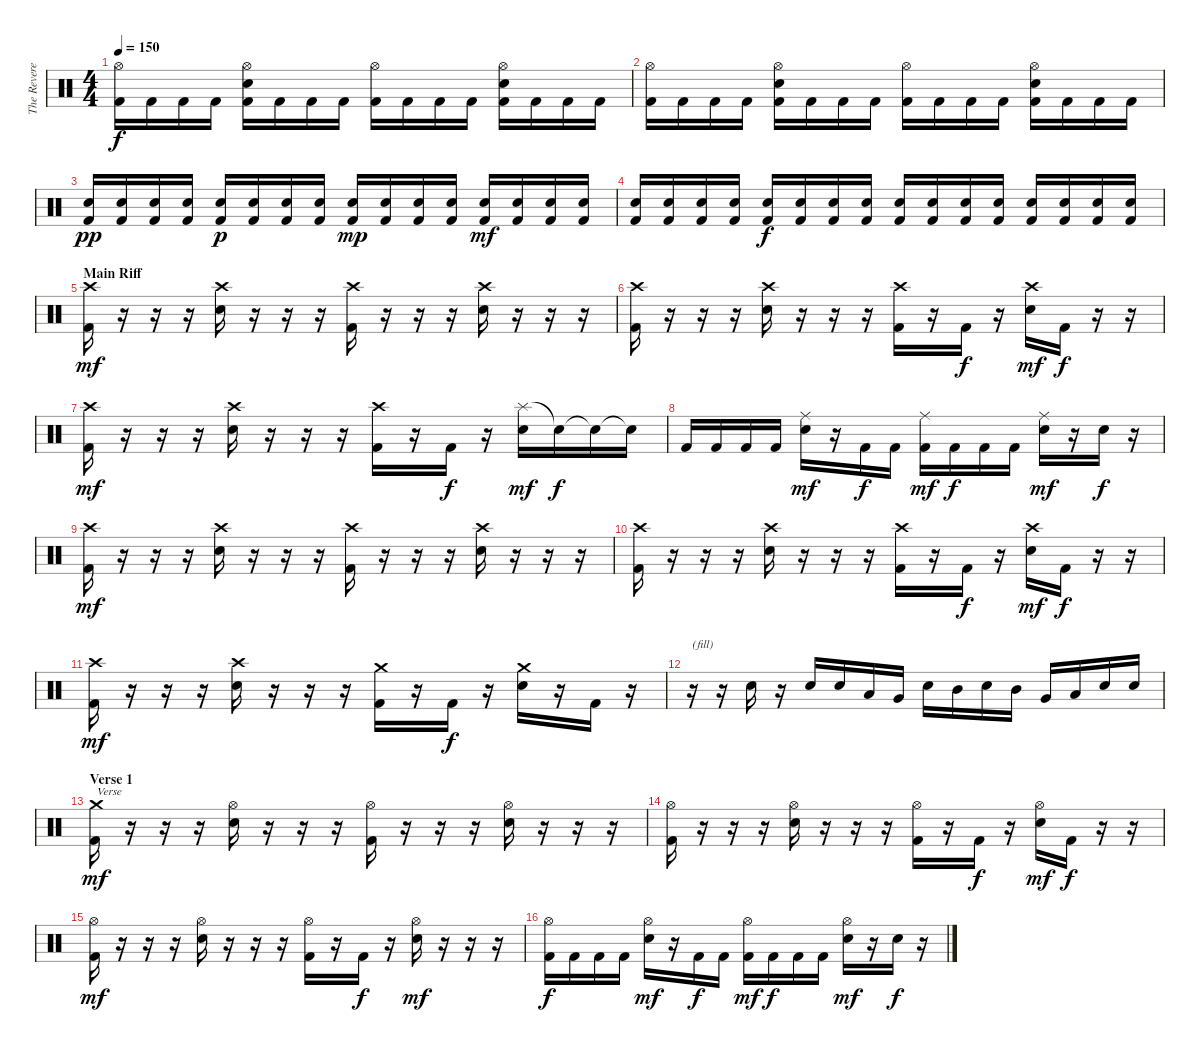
\track ("The Reverend" "The Revere") {instrument percussion}
\staff {score}
\articulation defaults
\ts (4 4)
\tempo 150
\clef neutral
\ks c
("Hi-Hat (open)" "Kick (hit) 2").16{dy f} "Kick (hit) 2".16 "Kick (hit) 2".16 "Kick (hit) 2".16 ("Hi-Hat (open)" "Electric Snare (hit)" "Kick (hit) 2").16 "Kick (hit) 2".16 "Kick (hit) 2".16 "Kick (hit) 2".16 ("Hi-Hat (open)" "Kick (hit) 2").16 "Kick (hit) 2".16 "Kick (hit) 2".16 "Kick (hit) 2".16 ("Hi-Hat (open)" "Electric Snare (hit)" "Kick (hit) 2").16 "Kick (hit) 2".16 "Kick (hit) 2".16 "Kick (hit) 2".16 |
("Hi-Hat (open)" "Kick (hit) 2").16 "Kick (hit) 2".16 "Kick (hit) 2".16 "Kick (hit) 2".16 ("Hi-Hat (open)" "Electric Snare (hit)" "Kick (hit) 2").16 "Kick (hit) 2".16 "Kick (hit) 2".16 "Kick (hit) 2".16 ("Hi-Hat (open)" "Kick (hit) 2").16 "Kick (hit) 2".16 "Kick (hit) 2".16 "Kick (hit) 2".16 ("Hi-Hat (open)" "Electric Snare (hit)" "Kick (hit) 2").16 "Kick (hit) 2".16 "Kick (hit) 2".16 "Kick (hit) 2".16 |
("Electric Snare (hit)" "Kick (hit) 2").16{dy pp} ("Electric Snare (hit)" "Kick (hit) 2").16 ("Electric Snare (hit)" "Kick (hit) 2").16 ("Electric Snare (hit)" "Kick (hit) 2").16 ("Electric Snare (hit)" "Kick (hit) 2").16{dy p} ("Electric Snare (hit)" "Kick (hit) 2").16 ("Electric Snare (hit)" "Kick (hit) 2").16 ("Electric Snare (hit)" "Kick (hit) 2").16 ("Electric Snare (hit)" "Kick (hit) 2").16{dy mp} ("Electric Snare (hit)" "Kick (hit) 2").16 ("Electric Snare (hit)" "Kick (hit) 2").16 ("Electric Snare (hit)" "Kick (hit) 2").16 ("Electric Snare (hit)" "Kick (hit) 2").16{dy mf} ("Electric Snare (hit)" "Kick (hit) 2").16 ("Electric Snare (hit)" "Kick (hit) 2").16 ("Electric Snare (hit)" "Kick (hit) 2").16 |
("Electric Snare (hit)" "Kick (hit) 2").16 ("Electric Snare (hit)" "Kick (hit) 2").16 ("Electric Snare (hit)" "Kick (hit) 2").16 ("Electric Snare (hit)" "Kick (hit) 2").16 ("Electric Snare (hit)" "Kick (hit) 2").16{dy f} ("Electric Snare (hit)" "Kick (hit) 2").16 ("Electric Snare (hit)" "Kick (hit) 2").16 ("Electric Snare (hit)" "Kick (hit) 2").16 ("Electric Snare (hit)" "Kick (hit) 2").16 ("Electric Snare (hit)" "Kick (hit) 2").16 ("Electric Snare (hit)" "Kick (hit) 2").16 ("Electric Snare (hit)" "Kick (hit) 2").16 ("Electric Snare (hit)" "Kick (hit) 2").16 ("Electric Snare (hit)" "Kick (hit) 2").16 ("Electric Snare (hit)" "Kick (hit) 2").16 ("Electric Snare (hit)" "Kick (hit) 2").16 |
\section ("" "Main Riff")
("Crash high (hit)" "Kick (hit) 2").16{dy mf} r.16 r.16 r.16 ("Crash high (hit)" "Electric Snare (hit)").16 r.16 r.16 r.16 ("Crash high (hit)" "Kick (hit) 2").16 r.16 r.16 r.16 ("Crash high (hit)" "Electric Snare (hit)").16 r.16 r.16 r.16 |
("Crash high (hit)" "Kick (hit) 2").16 r.16 r.16 r.16 ("Crash high (hit)" "Electric Snare (hit)").16 r.16 r.16 r.16 ("Crash high (hit)" "Kick (hit) 2").16 r.16 "Kick (hit) 2".16{dy f} r.16 ("Crash high (hit)" "Electric Snare (hit)").16{dy mf} "Kick (hit) 2".16{dy f} r.16 r.16 |
("Crash high (hit)" "Kick (hit) 2").16{dy mf} r.16 r.16 r.16 ("Crash high (hit)" "Electric Snare (hit)").16 r.16 r.16 r.16 ("Crash high (hit)" "Kick (hit) 2").16 r.16 "Kick (hit) 2".16{dy f} r.16 ("Splash (hit)" "Electric Snare (hit)").16{dy mf} "Snare (hit)"{t}.16{dy f} "Snare (hit)"{t}.16 "Snare (hit)"{t}.16 |
"Kick (hit) 2".16 "Kick (hit) 2".16 "Kick (hit) 2".16 "Kick (hit) 2".16 ("Ride (middle)" "Electric Snare (hit)").16{dy mf} r.16 "Kick (hit) 2".16{dy f} "Kick (hit) 2".16 ("Ride (middle)" "Kick (hit) 2").16{dy mf} "Kick (hit) 2".16{dy f} "Kick (hit) 2".16 "Kick (hit) 2".16 ("Ride (middle)" "Electric Snare (hit)").16{dy mf} r.16 "Electric Snare (hit)".16{dy f} r.16 |
("Crash high (hit)" "Kick (hit) 2").16{dy mf} r.16 r.16 r.16 ("Crash high (hit)" "Electric Snare (hit)").16 r.16 r.16 r.16 ("Crash high (hit)" "Kick (hit) 2").16 r.16 r.16 r.16 ("Crash high (hit)" "Electric Snare (hit)").16 r.16 r.16 r.16 |
("Crash high (hit)" "Kick (hit) 2").16 r.16 r.16 r.16 ("Crash high (hit)" "Electric Snare (hit)").16 r.16 r.16 r.16 ("Crash high (hit)" "Kick (hit) 2").16 r.16 "Kick (hit) 2".16{dy f} r.16 ("Crash high (hit)" "Electric Snare (hit)").16{dy mf} "Kick (hit) 2".16{dy f} r.16 r.16 |
("Crash high (hit)" "Kick (hit) 2").16{dy mf} r.16 r.16 r.16 ("Crash high (hit)" "Electric Snare (hit)").16 r.16 r.16 r.16 ("Crash medium (hit)" "Kick (hit) 2").16 r.16 "Kick (hit) 2".16{dy f} r.16 ("Crash medium (hit)" "Electric Snare (hit)").16 r.16 "Kick (hit) 2".16 r.16 |
r.16{txt "(fill)"} r.16 "Electric Snare (hit)".16 r.16 "Electric Snare (hit)".16 "Electric Snare (hit)".16 "Low Tom (hit)".16 "Very Low Tom (hit)".16 "Electric Snare (hit)".16 "Mid Tom (hit)".16 "Electric Snare (hit)".16 "Mid Tom (hit)".16 "Very Low Tom (hit)".16 "Low Tom (hit)".16 "Electric Snare (hit)".16 "Electric Snare (hit)".16 |
\section ("" "Verse 1")
("Crash medium (hit)" "Kick (hit) 2").16{txt "Verse" dy mf} r.16 r.16 r.16 ("Hi-Hat (open)" "Electric Snare (hit)").16 r.16 r.16 r.16 ("Hi-Hat (open)" "Kick (hit) 2").16 r.16 r.16 r.16 ("Hi-Hat (open)" "Electric Snare (hit)").16 r.16 r.16 r.16 |
("Hi-Hat (open)" "Kick (hit) 2").16 r.16 r.16 r.16 ("Hi-Hat (open)" "Electric Snare (hit)").16 r.16 r.16 r.16 ("Hi-Hat (open)" "Kick (hit) 2").16 r.16 "Kick (hit) 2".16{dy f} r.16 ("Hi-Hat (open)" "Electric Snare (hit)").16{dy mf} "Kick (hit) 2".16{dy f} r.16 r.16 |
("Hi-Hat (open)" "Kick (hit) 2").16{dy mf} r.16 r.16 r.16 ("Hi-Hat (open)" "Electric Snare (hit)").16 r.16 r.16 r.16 ("Hi-Hat (open)" "Kick (hit) 2").16 r.16 "Kick (hit) 2".16{dy f} r.16 ("Hi-Hat (open)" "Electric Snare (hit)").16{dy mf} r.16 r.16 r.16 |
("Hi-Hat (open)" "Kick (hit) 2").16{dy f} "Kick (hit) 2".16 "Kick (hit) 2".16 "Kick (hit) 2".16 ("Hi-Hat (open)" "Electric Snare (hit)").16{dy mf} r.16 "Kick (hit) 2".16{dy f} "Kick (hit) 2".16 ("Hi-Hat (open)" "Kick (hit) 2").16{dy mf} "Kick (hit) 2".16{dy f} "Kick (hit) 2".16 "Kick (hit) 2".16 ("Hi-Hat (open)" "Electric Snare (hit)").16{dy mf} r.16 "Electric Snare (hit)".16{dy f} r.16
